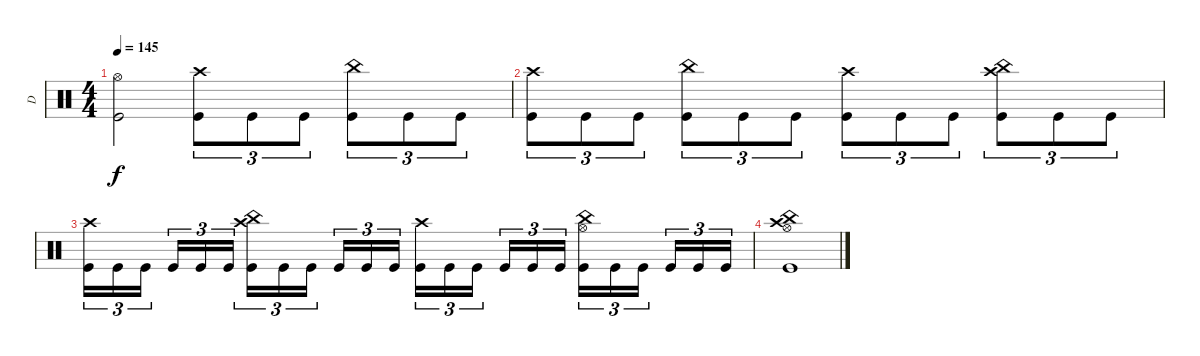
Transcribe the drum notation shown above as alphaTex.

\track ("D" "D") {instrument percussion}
\staff {score}
\articulation defaults
\ts (4 4)
\tempo 145
\clef neutral
\ks c
("Hi-Hat (open)" "Kick (hit)").2{dy f} ("Crash high (hit)" "Kick (hit)").8{tu (3 2)} "Kick (hit)".8{tu (3 2)} "Kick (hit)".8{tu (3 2)} ("China (hit)" "Kick (hit)").8{tu (3 2)} "Kick (hit)".8{tu (3 2)} "Kick (hit)".8{tu (3 2)} |
("Crash high (hit)" "Kick (hit)").8{tu (3 2)} "Kick (hit)".8{tu (3 2)} "Kick (hit)".8{tu (3 2)} ("China (hit)" "Kick (hit)").8{tu (3 2)} "Kick (hit)".8{tu (3 2)} "Kick (hit)".8{tu (3 2)} ("Crash high (hit)" "Kick (hit)").8{tu (3 2)} "Kick (hit)".8{tu (3 2)} "Kick (hit)".8{tu (3 2)} ("Crash high (hit)" "China (hit)" "Kick (hit)").8{tu (3 2)} "Kick (hit)".8{tu (3 2)} "Kick (hit)".8{tu (3 2)} |
("Crash high (hit)" "Kick (hit)").16{tu (3 2)} "Kick (hit)".16{tu (3 2)} "Kick (hit)".16{tu (3 2) beam splitsecondary} "Kick (hit)".16{tu (3 2)} "Kick (hit)".16{tu (3 2)} "Kick (hit)".16{tu (3 2)} ("Crash high (hit)" "China (hit)" "Kick (hit)").16{tu (3 2)} "Kick (hit)".16{tu (3 2)} "Kick (hit)".16{tu (3 2) beam splitsecondary} "Kick (hit)".16{tu (3 2)} "Kick (hit)".16{tu (3 2)} "Kick (hit)".16{tu (3 2)} ("Crash high (hit)" "Kick (hit)").16{tu (3 2)} "Kick (hit)".16{tu (3 2)} "Kick (hit)".16{tu (3 2) beam splitsecondary} "Kick (hit)".16{tu (3 2)} "Kick (hit)".16{tu (3 2)} "Kick (hit)".16{tu (3 2)} ("Hi-Hat (open)" "China (hit)" "Kick (hit)").16{tu (3 2)} "Kick (hit)".16{tu (3 2)} "Kick (hit)".16{tu (3 2) beam splitsecondary} "Kick (hit)".16{tu (3 2)} "Kick (hit)".16{tu (3 2)} "Kick (hit)".16{tu (3 2)} |
("China (hit)" "Crash high (hit)" "Hi-Hat (open)" "Kick (hit)").1
